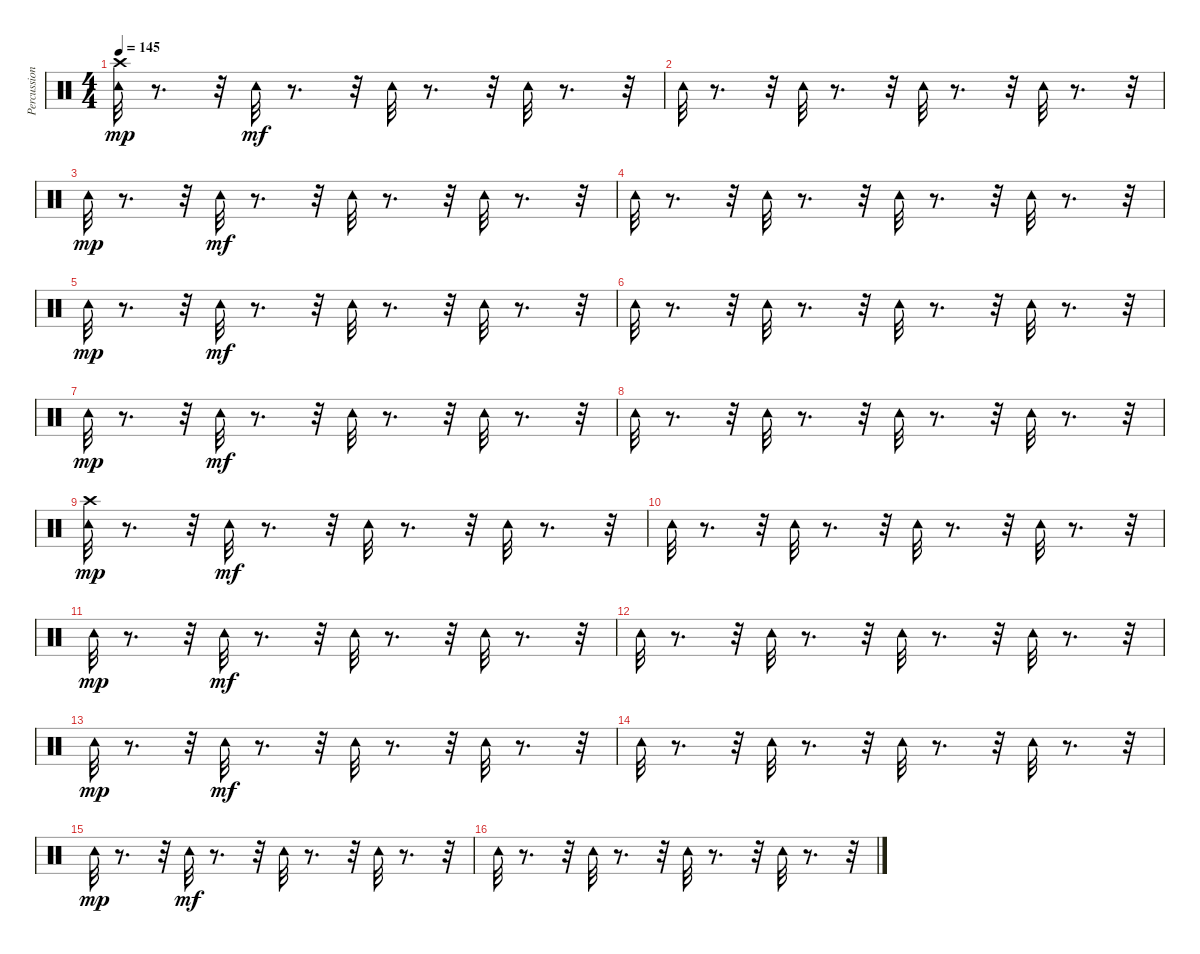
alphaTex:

\track ("Percussion" "Percussion") {instrument percussion}
\staff {score}
\articulation defaults
\ts (4 4)
\tempo 145
\clef neutral
\ks c
("Crash high (hit)" "Tambourine (hit)").32{dy mp} r.8{d} r.32 "Tambourine (hit)".32{dy mf} r.8{d} r.32 "Tambourine (hit)".32 r.8{d} r.32 "Tambourine (hit)".32 r.8{d} r.32 |
"Tambourine (hit)".32 r.8{d} r.32 "Tambourine (hit)".32 r.8{d} r.32 "Tambourine (hit)".32 r.8{d} r.32 "Tambourine (hit)".32 r.8{d} r.32 |
"Tambourine (hit)".32{dy mp} r.8{d} r.32 "Tambourine (hit)".32{dy mf} r.8{d} r.32 "Tambourine (hit)".32 r.8{d} r.32 "Tambourine (hit)".32 r.8{d} r.32 |
"Tambourine (hit)".32 r.8{d} r.32 "Tambourine (hit)".32 r.8{d} r.32 "Tambourine (hit)".32 r.8{d} r.32 "Tambourine (hit)".32 r.8{d} r.32 |
"Tambourine (hit)".32{dy mp} r.8{d} r.32 "Tambourine (hit)".32{dy mf} r.8{d} r.32 "Tambourine (hit)".32 r.8{d} r.32 "Tambourine (hit)".32 r.8{d} r.32 |
"Tambourine (hit)".32 r.8{d} r.32 "Tambourine (hit)".32 r.8{d} r.32 "Tambourine (hit)".32 r.8{d} r.32 "Tambourine (hit)".32 r.8{d} r.32 |
"Tambourine (hit)".32{dy mp} r.8{d} r.32 "Tambourine (hit)".32{dy mf} r.8{d} r.32 "Tambourine (hit)".32 r.8{d} r.32 "Tambourine (hit)".32 r.8{d} r.32 |
"Tambourine (hit)".32 r.8{d} r.32 "Tambourine (hit)".32 r.8{d} r.32 "Tambourine (hit)".32 r.8{d} r.32 "Tambourine (hit)".32 r.8{d} r.32 |
("Crash high (hit)" "Tambourine (hit)").32{dy mp} r.8{d} r.32 "Tambourine (hit)".32{dy mf} r.8{d} r.32 "Tambourine (hit)".32 r.8{d} r.32 "Tambourine (hit)".32 r.8{d} r.32 |
"Tambourine (hit)".32 r.8{d} r.32 "Tambourine (hit)".32 r.8{d} r.32 "Tambourine (hit)".32 r.8{d} r.32 "Tambourine (hit)".32 r.8{d} r.32 |
"Tambourine (hit)".32{dy mp} r.8{d} r.32 "Tambourine (hit)".32{dy mf} r.8{d} r.32 "Tambourine (hit)".32 r.8{d} r.32 "Tambourine (hit)".32 r.8{d} r.32 |
"Tambourine (hit)".32 r.8{d} r.32 "Tambourine (hit)".32 r.8{d} r.32 "Tambourine (hit)".32 r.8{d} r.32 "Tambourine (hit)".32 r.8{d} r.32 |
"Tambourine (hit)".32{dy mp} r.8{d} r.32 "Tambourine (hit)".32{dy mf} r.8{d} r.32 "Tambourine (hit)".32 r.8{d} r.32 "Tambourine (hit)".32 r.8{d} r.32 |
"Tambourine (hit)".32 r.8{d} r.32 "Tambourine (hit)".32 r.8{d} r.32 "Tambourine (hit)".32 r.8{d} r.32 "Tambourine (hit)".32 r.8{d} r.32 |
"Tambourine (hit)".32{dy mp} r.8{d} r.32 "Tambourine (hit)".32{dy mf} r.8{d} r.32 "Tambourine (hit)".32 r.8{d} r.32 "Tambourine (hit)".32 r.8{d} r.32 |
"Tambourine (hit)".32 r.8{d} r.32 "Tambourine (hit)".32 r.8{d} r.32 "Tambourine (hit)".32 r.8{d} r.32 "Tambourine (hit)".32 r.8{d} r.32
